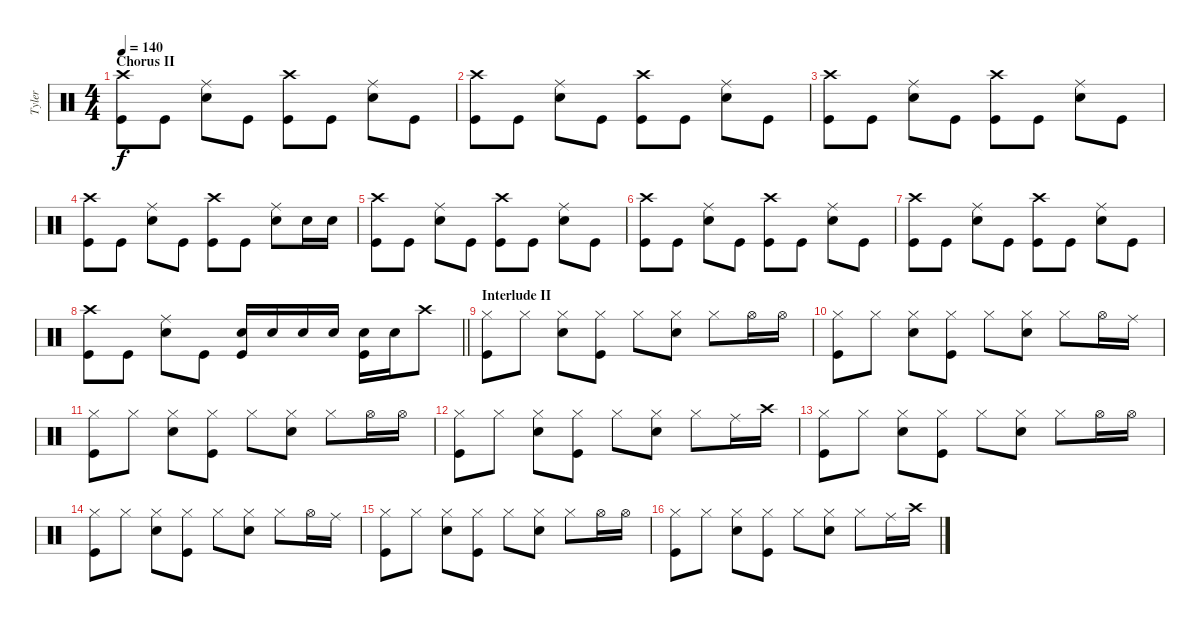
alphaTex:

\track ("Tyler" "Tyler") {instrument percussion}
\staff {score}
\articulation defaults
\ts (4 4)
\section ("" "Chorus II")
\tempo 140
\clef neutral
\ks c
("Crash high (hit)" "Kick (hit)").8{dy f} "Kick (hit)".8 ("Ride (middle)" "Snare (hit) 2").8 "Kick (hit)".8 ("Crash high (hit)" "Kick (hit)").8 "Kick (hit)".8 ("Ride (middle)" "Snare (hit) 2").8 "Kick (hit)".8 |
("Crash high (hit)" "Kick (hit)").8 "Kick (hit)".8 ("Ride (middle)" "Snare (hit) 2").8 "Kick (hit)".8 ("Crash high (hit)" "Kick (hit)").8 "Kick (hit)".8 ("Ride (middle)" "Snare (hit) 2").8 "Kick (hit)".8 |
("Crash high (hit)" "Kick (hit)").8 "Kick (hit)".8 ("Ride (middle)" "Snare (hit) 2").8 "Kick (hit)".8 ("Crash high (hit)" "Kick (hit)").8 "Kick (hit)".8 ("Ride (middle)" "Snare (hit) 2").8 "Kick (hit)".8 |
("Crash high (hit)" "Kick (hit)").8 "Kick (hit)".8 ("Ride (middle)" "Snare (hit) 2").8 "Kick (hit)".8 ("Crash high (hit)" "Kick (hit)").8 "Kick (hit)".8 ("Ride (middle)" "Snare (hit) 2").8 "Snare (hit) 2".16 "Snare (hit) 2".16 |
("Crash high (hit)" "Kick (hit)").8 "Kick (hit)".8 ("Ride (middle)" "Snare (hit) 2").8 "Kick (hit)".8 ("Crash high (hit)" "Kick (hit)").8 "Kick (hit)".8 ("Ride (middle)" "Snare (hit) 2").8 "Kick (hit)".8 |
("Crash high (hit)" "Kick (hit)").8 "Kick (hit)".8 ("Ride (middle)" "Snare (hit) 2").8 "Kick (hit)".8 ("Crash high (hit)" "Kick (hit)").8 "Kick (hit)".8 ("Ride (middle)" "Snare (hit) 2").8 "Kick (hit)".8 |
("Crash high (hit)" "Kick (hit)").8 "Kick (hit)".8 ("Ride (middle)" "Snare (hit) 2").8 "Kick (hit)".8 ("Crash high (hit)" "Kick (hit)").8 "Kick (hit)".8 ("Ride (middle)" "Snare (hit) 2").8 "Kick (hit)".8 |
\barLineRight lightlight
("Crash high (hit)" "Kick (hit)").8 "Kick (hit)".8 ("Ride (middle)" "Snare (hit) 2").8 "Kick (hit)".8 ("Kick (hit)" "Snare (hit) 2").16 "Snare (hit) 2".16 "Snare (hit) 2".16 "Snare (hit) 2".16 ("Kick (hit)" "Snare (hit) 2").16 "Snare (hit) 2".16 "Crash high (hit)".8 |
\section ("" "Interlude II")
("Kick (hit)" "Hi-Hat (closed)").8 "Hi-Hat (closed)".8 ("Snare (hit) 2" "Hi-Hat (closed)").8 ("Kick (hit)" "Hi-Hat (closed)").8 "Hi-Hat (closed)".8 ("Snare (hit) 2" "Hi-Hat (closed)").8 "Hi-Hat (closed)".8 "Hi-Hat (open)".16 "Hi-Hat (open)".16 |
("Kick (hit)" "Hi-Hat (closed)").8 "Hi-Hat (closed)".8 ("Snare (hit) 2" "Hi-Hat (closed)").8 ("Kick (hit)" "Hi-Hat (closed)").8 "Hi-Hat (closed)".8 ("Snare (hit) 2" "Hi-Hat (closed)").8 "Hi-Hat (closed)".8 "Hi-Hat (open)".16 "Ride (middle)".16 |
("Kick (hit)" "Hi-Hat (closed)").8 "Hi-Hat (closed)".8 ("Snare (hit) 2" "Hi-Hat (closed)").8 ("Kick (hit)" "Hi-Hat (closed)").8 "Hi-Hat (closed)".8 ("Snare (hit) 2" "Hi-Hat (closed)").8 "Hi-Hat (closed)".8 "Hi-Hat (open)".16 "Hi-Hat (open)".16 |
("Kick (hit)" "Hi-Hat (closed)").8 "Hi-Hat (closed)".8 ("Snare (hit) 2" "Hi-Hat (closed)").8 ("Kick (hit)" "Hi-Hat (closed)").8 "Hi-Hat (closed)".8 ("Snare (hit) 2" "Hi-Hat (closed)").8 "Hi-Hat (closed)".8 "Ride (middle)".16 "Crash high (hit)".16 |
("Kick (hit)" "Hi-Hat (closed)").8 "Hi-Hat (closed)".8 ("Snare (hit) 2" "Hi-Hat (closed)").8 ("Kick (hit)" "Hi-Hat (closed)").8 "Hi-Hat (closed)".8 ("Snare (hit) 2" "Hi-Hat (closed)").8 "Hi-Hat (closed)".8 "Hi-Hat (open)".16 "Hi-Hat (open)".16 |
("Kick (hit)" "Hi-Hat (closed)").8 "Hi-Hat (closed)".8 ("Snare (hit) 2" "Hi-Hat (closed)").8 ("Kick (hit)" "Hi-Hat (closed)").8 "Hi-Hat (closed)".8 ("Snare (hit) 2" "Hi-Hat (closed)").8 "Hi-Hat (closed)".8 "Hi-Hat (open)".16 "Ride (middle)".16 |
("Kick (hit)" "Hi-Hat (closed)").8 "Hi-Hat (closed)".8 ("Snare (hit) 2" "Hi-Hat (closed)").8 ("Kick (hit)" "Hi-Hat (closed)").8 "Hi-Hat (closed)".8 ("Snare (hit) 2" "Hi-Hat (closed)").8 "Hi-Hat (closed)".8 "Hi-Hat (open)".16 "Hi-Hat (open)".16 |
("Kick (hit)" "Hi-Hat (closed)").8 "Hi-Hat (closed)".8 ("Snare (hit) 2" "Hi-Hat (closed)").8 ("Kick (hit)" "Hi-Hat (closed)").8 "Hi-Hat (closed)".8 ("Snare (hit) 2" "Hi-Hat (closed)").8 "Hi-Hat (closed)".8 "Ride (middle)".16 "Crash high (hit)".16
